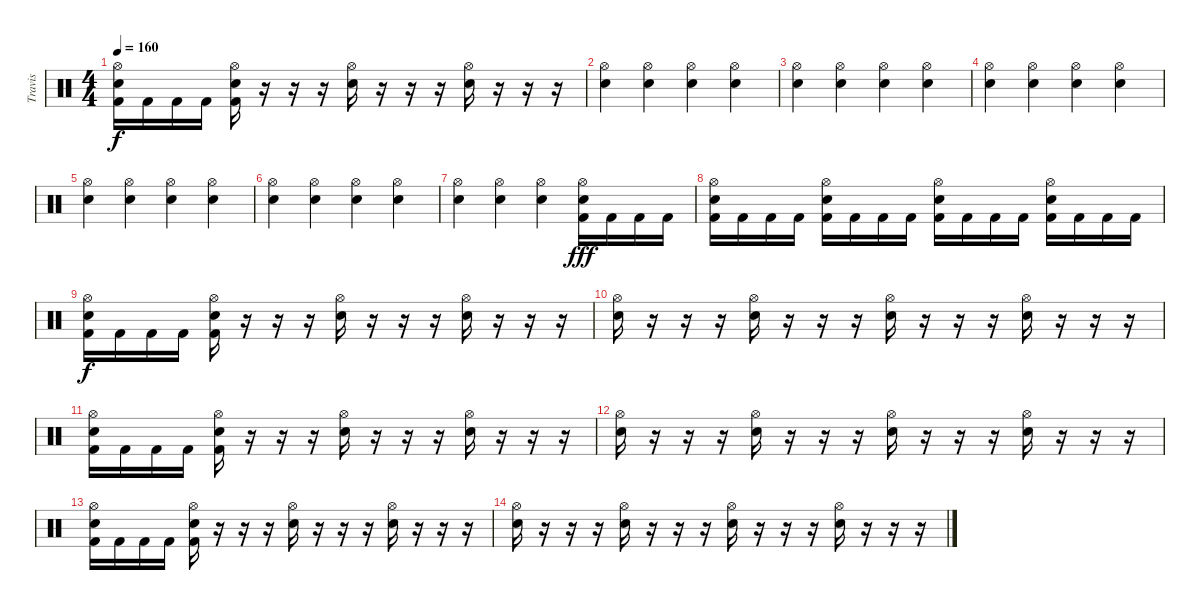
\track ("Travis" "Travis") {instrument percussion}
\staff {score}
\articulation defaults
\ts (4 4)
\tempo 160
\clef neutral
\ks c
("Hi-Hat (open)" "Electric Snare (hit)" "Kick (hit) 2").16{dy f} "Kick (hit) 2".16 "Kick (hit) 2".16 "Kick (hit) 2".16 ("Hi-Hat (open)" "Electric Snare (hit)" "Kick (hit) 2").16 r.16 r.16 r.16 ("Hi-Hat (open)" "Electric Snare (hit)").16 r.16 r.16 r.16 ("Hi-Hat (open)" "Electric Snare (hit)").16 r.16 r.16 r.16 |
("Hi-Hat (open)" "Electric Snare (hit)").4 ("Hi-Hat (open)" "Electric Snare (hit)").4 ("Hi-Hat (open)" "Electric Snare (hit)").4 ("Hi-Hat (open)" "Electric Snare (hit)").4 |
("Hi-Hat (open)" "Electric Snare (hit)").4 ("Hi-Hat (open)" "Electric Snare (hit)").4 ("Hi-Hat (open)" "Electric Snare (hit)").4 ("Hi-Hat (open)" "Electric Snare (hit)").4 |
("Hi-Hat (open)" "Electric Snare (hit)").4 ("Hi-Hat (open)" "Electric Snare (hit)").4 ("Hi-Hat (open)" "Electric Snare (hit)").4 ("Hi-Hat (open)" "Electric Snare (hit)").4 |
("Hi-Hat (open)" "Electric Snare (hit)").4 ("Hi-Hat (open)" "Electric Snare (hit)").4 ("Hi-Hat (open)" "Electric Snare (hit)").4 ("Hi-Hat (open)" "Electric Snare (hit)").4 |
("Hi-Hat (open)" "Electric Snare (hit)").4 ("Hi-Hat (open)" "Electric Snare (hit)").4 ("Hi-Hat (open)" "Electric Snare (hit)").4 ("Hi-Hat (open)" "Electric Snare (hit)").4 |
("Hi-Hat (open)" "Electric Snare (hit)").4 ("Hi-Hat (open)" "Electric Snare (hit)").4 ("Hi-Hat (open)" "Electric Snare (hit)").4 ("Hi-Hat (open)" "Electric Snare (hit)" "Kick (hit) 2").16{dy fff} "Kick (hit) 2".16 "Kick (hit) 2".16 "Kick (hit) 2".16 |
("Hi-Hat (open)" "Electric Snare (hit)" "Kick (hit) 2").16 "Kick (hit) 2".16 "Kick (hit) 2".16 "Kick (hit) 2".16 ("Hi-Hat (open)" "Electric Snare (hit)" "Kick (hit) 2").16 "Kick (hit) 2".16 "Kick (hit) 2".16 "Kick (hit) 2".16 ("Hi-Hat (open)" "Electric Snare (hit)" "Kick (hit) 2").16 "Kick (hit) 2".16 "Kick (hit) 2".16 "Kick (hit) 2".16 ("Hi-Hat (open)" "Electric Snare (hit)" "Kick (hit) 2").16 "Kick (hit) 2".16 "Kick (hit) 2".16 "Kick (hit) 2".16 |
("Hi-Hat (open)" "Electric Snare (hit)" "Kick (hit) 2").16{dy f} "Kick (hit) 2".16 "Kick (hit) 2".16 "Kick (hit) 2".16 ("Hi-Hat (open)" "Electric Snare (hit)" "Kick (hit) 2").16 r.16 r.16 r.16 ("Hi-Hat (open)" "Electric Snare (hit)").16 r.16 r.16 r.16 ("Hi-Hat (open)" "Electric Snare (hit)").16 r.16 r.16 r.16 |
("Hi-Hat (open)" "Electric Snare (hit)").16 r.16 r.16 r.16 ("Hi-Hat (open)" "Electric Snare (hit)").16 r.16 r.16 r.16 ("Hi-Hat (open)" "Electric Snare (hit)").16 r.16 r.16 r.16 ("Hi-Hat (open)" "Electric Snare (hit)").16 r.16 r.16 r.16 |
("Hi-Hat (open)" "Electric Snare (hit)" "Kick (hit) 2").16 "Kick (hit) 2".16 "Kick (hit) 2".16 "Kick (hit) 2".16 ("Hi-Hat (open)" "Electric Snare (hit)" "Kick (hit) 2").16 r.16 r.16 r.16 ("Hi-Hat (open)" "Electric Snare (hit)").16 r.16 r.16 r.16 ("Hi-Hat (open)" "Electric Snare (hit)").16 r.16 r.16 r.16 |
("Hi-Hat (open)" "Electric Snare (hit)").16 r.16 r.16 r.16 ("Hi-Hat (open)" "Electric Snare (hit)").16 r.16 r.16 r.16 ("Hi-Hat (open)" "Electric Snare (hit)").16 r.16 r.16 r.16 ("Hi-Hat (open)" "Electric Snare (hit)").16 r.16 r.16 r.16 |
("Hi-Hat (open)" "Electric Snare (hit)" "Kick (hit) 2").16 "Kick (hit) 2".16 "Kick (hit) 2".16 "Kick (hit) 2".16 ("Hi-Hat (open)" "Electric Snare (hit)" "Kick (hit) 2").16 r.16 r.16 r.16 ("Hi-Hat (open)" "Electric Snare (hit)").16 r.16 r.16 r.16 ("Hi-Hat (open)" "Electric Snare (hit)").16 r.16 r.16 r.16 |
("Hi-Hat (open)" "Electric Snare (hit)").16 r.16 r.16 r.16 ("Hi-Hat (open)" "Electric Snare (hit)").16 r.16 r.16 r.16 ("Hi-Hat (open)" "Electric Snare (hit)").16 r.16 r.16 r.16 ("Hi-Hat (open)" "Electric Snare (hit)").16 r.16 r.16 r.16
